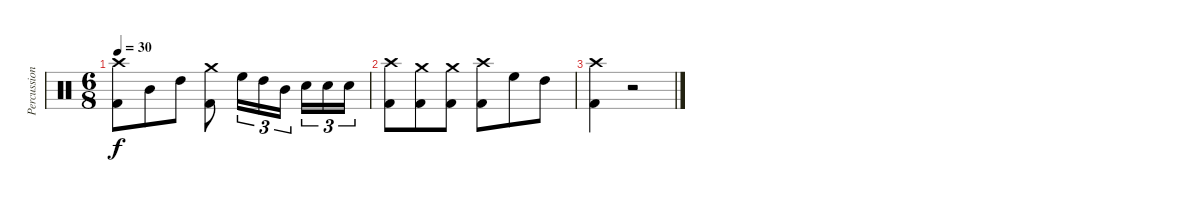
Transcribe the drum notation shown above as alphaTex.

\track ("Percussion" "Percussion") {instrument percussion}
\staff {score}
\articulation defaults
\ts (6 8)
\tempo 30
\clef neutral
\ks c
("Kick (hit) 2" "Crash high (hit)").8{dy f} "Mid Tom (hit)".8 "High Tom (hit)".8 ("Kick (hit) 2" "Crash medium (hit)").8 "High Floor Tom (hit)".16{tu (3 2)} "High Tom (hit)".16{tu (3 2)} "Mid Tom (hit)".16{tu (3 2)} "Snare (hit) 2".16{tu (3 2)} "Snare (hit) 2".16{tu (3 2)} "Snare (hit) 2".16{tu (3 2)} |
("Kick (hit) 2" "Crash high (hit)").8 ("Kick (hit) 2" "Crash medium (hit)").8 ("Kick (hit) 2" "Crash medium (hit)").8 ("Kick (hit) 2" "Crash high (hit)").8 "High Floor Tom (hit)".8 "High Tom (hit)".8 |
("Kick (hit) 2" "Crash high (hit)").4 r.2
